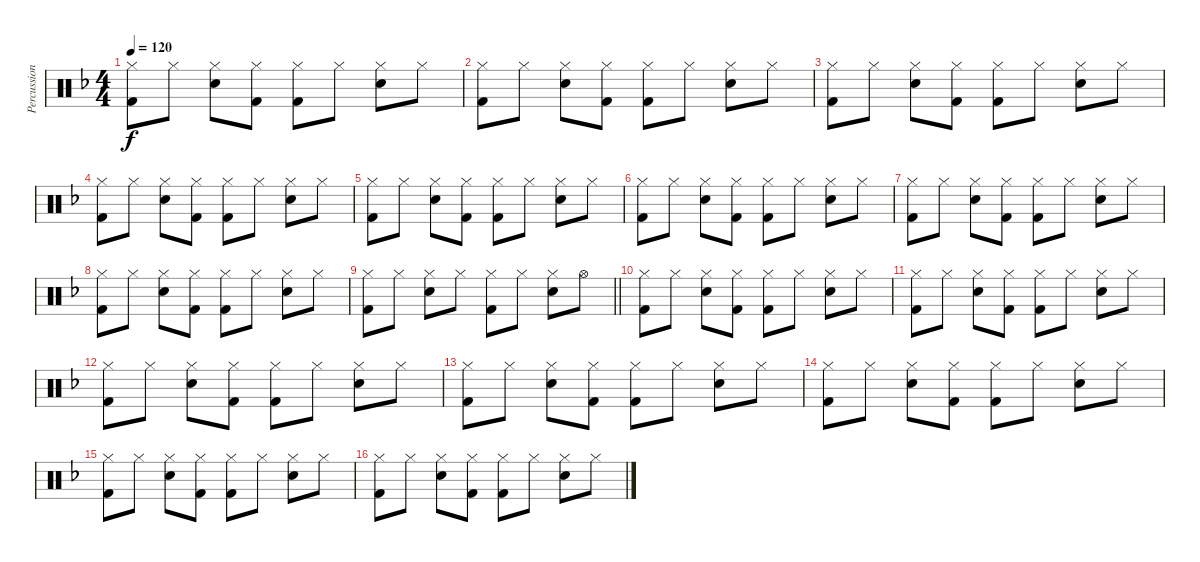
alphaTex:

\track ("Percussion" "Percussion") {instrument percussion}
\staff {score}
\articulation defaults
\ts (4 4)
\tempo 120
\clef neutral
\ks f
("Hi-Hat (closed)" "Kick (hit) 2").8{dy f} "Hi-Hat (closed)".8 ("Hi-Hat (closed)" "Snare (hit) 2").8 ("Hi-Hat (closed)" "Kick (hit) 2").8 ("Hi-Hat (closed)" "Kick (hit) 2").8 "Hi-Hat (closed)".8 ("Hi-Hat (closed)" "Snare (hit) 2").8 "Hi-Hat (closed)".8 |
("Hi-Hat (closed)" "Kick (hit) 2").8 "Hi-Hat (closed)".8 ("Hi-Hat (closed)" "Snare (hit) 2").8 ("Hi-Hat (closed)" "Kick (hit) 2").8 ("Hi-Hat (closed)" "Kick (hit) 2").8 "Hi-Hat (closed)".8 ("Hi-Hat (closed)" "Snare (hit) 2").8 "Hi-Hat (closed)".8 |
("Hi-Hat (closed)" "Kick (hit) 2").8 "Hi-Hat (closed)".8 ("Hi-Hat (closed)" "Snare (hit) 2").8 ("Hi-Hat (closed)" "Kick (hit) 2").8 ("Hi-Hat (closed)" "Kick (hit) 2").8 "Hi-Hat (closed)".8 ("Hi-Hat (closed)" "Snare (hit) 2").8 "Hi-Hat (closed)".8 |
("Hi-Hat (closed)" "Kick (hit) 2").8 "Hi-Hat (closed)".8 ("Hi-Hat (closed)" "Snare (hit) 2").8 ("Hi-Hat (closed)" "Kick (hit) 2").8 ("Hi-Hat (closed)" "Kick (hit) 2").8 "Hi-Hat (closed)".8 ("Hi-Hat (closed)" "Snare (hit) 2").8 "Hi-Hat (closed)".8 |
("Hi-Hat (closed)" "Kick (hit) 2").8 "Hi-Hat (closed)".8 ("Hi-Hat (closed)" "Snare (hit) 2").8 ("Hi-Hat (closed)" "Kick (hit) 2").8 ("Hi-Hat (closed)" "Kick (hit) 2").8 "Hi-Hat (closed)".8 ("Hi-Hat (closed)" "Snare (hit) 2").8 "Hi-Hat (closed)".8 |
("Hi-Hat (closed)" "Kick (hit) 2").8 "Hi-Hat (closed)".8 ("Hi-Hat (closed)" "Snare (hit) 2").8 ("Hi-Hat (closed)" "Kick (hit) 2").8 ("Hi-Hat (closed)" "Kick (hit) 2").8 "Hi-Hat (closed)".8 ("Hi-Hat (closed)" "Snare (hit) 2").8 "Hi-Hat (closed)".8 |
("Hi-Hat (closed)" "Kick (hit) 2").8 "Hi-Hat (closed)".8 ("Hi-Hat (closed)" "Snare (hit) 2").8 ("Hi-Hat (closed)" "Kick (hit) 2").8 ("Hi-Hat (closed)" "Kick (hit) 2").8 "Hi-Hat (closed)".8 ("Hi-Hat (closed)" "Snare (hit) 2").8 "Hi-Hat (closed)".8 |
("Hi-Hat (closed)" "Kick (hit) 2").8 "Hi-Hat (closed)".8 ("Hi-Hat (closed)" "Snare (hit) 2").8 ("Hi-Hat (closed)" "Kick (hit) 2").8 ("Hi-Hat (closed)" "Kick (hit) 2").8 "Hi-Hat (closed)".8 ("Hi-Hat (closed)" "Snare (hit) 2").8 "Hi-Hat (closed)".8 |
\barLineRight lightlight
("Hi-Hat (closed)" "Kick (hit) 2").8 "Hi-Hat (closed)".8 ("Hi-Hat (closed)" "Snare (hit) 2").8 "Hi-Hat (closed)".8 ("Hi-Hat (closed)" "Kick (hit) 2").8 "Hi-Hat (closed)".8 ("Hi-Hat (closed)" "Snare (hit) 2").8 "Hi-Hat (open)".8 |
("Hi-Hat (closed)" "Kick (hit) 2").8 "Hi-Hat (closed)".8 ("Hi-Hat (closed)" "Snare (hit) 2").8 ("Hi-Hat (closed)" "Kick (hit) 2").8 ("Hi-Hat (closed)" "Kick (hit) 2").8 "Hi-Hat (closed)".8 ("Hi-Hat (closed)" "Snare (hit) 2").8 "Hi-Hat (closed)".8 |
("Hi-Hat (closed)" "Kick (hit) 2").8 "Hi-Hat (closed)".8 ("Hi-Hat (closed)" "Snare (hit) 2").8 ("Hi-Hat (closed)" "Kick (hit) 2").8 ("Hi-Hat (closed)" "Kick (hit) 2").8 "Hi-Hat (closed)".8 ("Hi-Hat (closed)" "Snare (hit) 2").8 "Hi-Hat (closed)".8 |
("Hi-Hat (closed)" "Kick (hit) 2").8 "Hi-Hat (closed)".8 ("Hi-Hat (closed)" "Snare (hit) 2").8 ("Hi-Hat (closed)" "Kick (hit) 2").8 ("Hi-Hat (closed)" "Kick (hit) 2").8 "Hi-Hat (closed)".8 ("Hi-Hat (closed)" "Snare (hit) 2").8 "Hi-Hat (closed)".8 |
("Hi-Hat (closed)" "Kick (hit) 2").8 "Hi-Hat (closed)".8 ("Hi-Hat (closed)" "Snare (hit) 2").8 ("Hi-Hat (closed)" "Kick (hit) 2").8 ("Hi-Hat (closed)" "Kick (hit) 2").8 "Hi-Hat (closed)".8 ("Hi-Hat (closed)" "Snare (hit) 2").8 "Hi-Hat (closed)".8 |
("Hi-Hat (closed)" "Kick (hit) 2").8 "Hi-Hat (closed)".8 ("Hi-Hat (closed)" "Snare (hit) 2").8 ("Hi-Hat (closed)" "Kick (hit) 2").8 ("Hi-Hat (closed)" "Kick (hit) 2").8 "Hi-Hat (closed)".8 ("Hi-Hat (closed)" "Snare (hit) 2").8 "Hi-Hat (closed)".8 |
("Hi-Hat (closed)" "Kick (hit) 2").8 "Hi-Hat (closed)".8 ("Hi-Hat (closed)" "Snare (hit) 2").8 ("Hi-Hat (closed)" "Kick (hit) 2").8 ("Hi-Hat (closed)" "Kick (hit) 2").8 "Hi-Hat (closed)".8 ("Hi-Hat (closed)" "Snare (hit) 2").8 "Hi-Hat (closed)".8 |
("Hi-Hat (closed)" "Kick (hit) 2").8 "Hi-Hat (closed)".8 ("Hi-Hat (closed)" "Snare (hit) 2").8 ("Hi-Hat (closed)" "Kick (hit) 2").8 ("Hi-Hat (closed)" "Kick (hit) 2").8 "Hi-Hat (closed)".8 ("Hi-Hat (closed)" "Snare (hit) 2").8 "Hi-Hat (closed)".8
